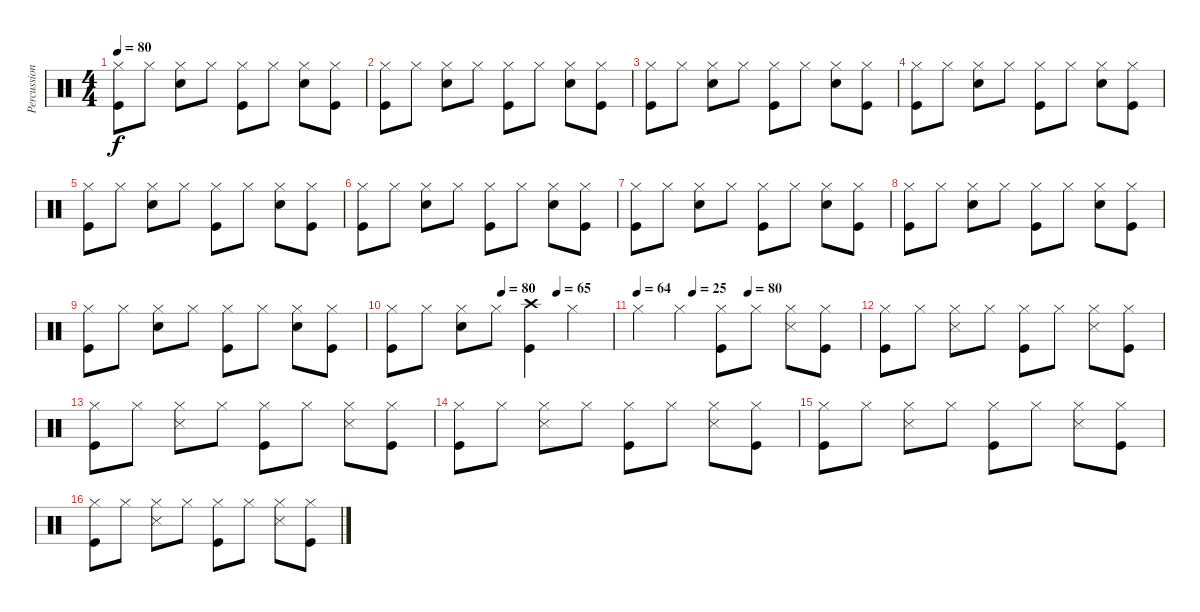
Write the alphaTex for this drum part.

\track ("Percussion" "Percussion") {instrument percussion}
\staff {score}
\articulation defaults
\ts (4 4)
\tempo 80
\clef neutral
\ks c
("Hi-Hat (closed)" "Kick (hit)").8{dy f} "Hi-Hat (closed)".8 ("Hi-Hat (closed)" "Electric Snare (hit)").8 "Hi-Hat (closed)".8 ("Hi-Hat (closed)" "Kick (hit)").8 "Hi-Hat (closed)".8 ("Hi-Hat (closed)" "Electric Snare (hit)").8 ("Hi-Hat (closed)" "Kick (hit)").8 |
("Hi-Hat (closed)" "Kick (hit)").8 "Hi-Hat (closed)".8 ("Hi-Hat (closed)" "Electric Snare (hit)").8 "Hi-Hat (closed)".8 ("Hi-Hat (closed)" "Kick (hit)").8 "Hi-Hat (closed)".8 ("Hi-Hat (closed)" "Electric Snare (hit)").8 ("Hi-Hat (closed)" "Kick (hit)").8 |
("Hi-Hat (closed)" "Kick (hit)").8 "Hi-Hat (closed)".8 ("Hi-Hat (closed)" "Electric Snare (hit)").8 "Hi-Hat (closed)".8 ("Hi-Hat (closed)" "Kick (hit)").8 "Hi-Hat (closed)".8 ("Hi-Hat (closed)" "Electric Snare (hit)").8 ("Hi-Hat (closed)" "Kick (hit)").8 |
("Hi-Hat (closed)" "Kick (hit)").8 "Hi-Hat (closed)".8 ("Hi-Hat (closed)" "Electric Snare (hit)").8 "Hi-Hat (closed)".8 ("Hi-Hat (closed)" "Kick (hit)").8 "Hi-Hat (closed)".8 ("Hi-Hat (closed)" "Electric Snare (hit)").8 ("Hi-Hat (closed)" "Kick (hit)").8 |
("Hi-Hat (closed)" "Kick (hit)").8 "Hi-Hat (closed)".8 ("Hi-Hat (closed)" "Electric Snare (hit)").8 "Hi-Hat (closed)".8 ("Hi-Hat (closed)" "Kick (hit)").8 "Hi-Hat (closed)".8 ("Hi-Hat (closed)" "Electric Snare (hit)").8 ("Hi-Hat (closed)" "Kick (hit)").8 |
("Hi-Hat (closed)" "Kick (hit)").8 "Hi-Hat (closed)".8 ("Hi-Hat (closed)" "Electric Snare (hit)").8 "Hi-Hat (closed)".8 ("Hi-Hat (closed)" "Kick (hit)").8 "Hi-Hat (closed)".8 ("Hi-Hat (closed)" "Electric Snare (hit)").8 ("Hi-Hat (closed)" "Kick (hit)").8 |
("Hi-Hat (closed)" "Kick (hit)").8 "Hi-Hat (closed)".8 ("Hi-Hat (closed)" "Electric Snare (hit)").8 "Hi-Hat (closed)".8 ("Hi-Hat (closed)" "Kick (hit)").8 "Hi-Hat (closed)".8 ("Hi-Hat (closed)" "Electric Snare (hit)").8 ("Hi-Hat (closed)" "Kick (hit)").8 |
("Hi-Hat (closed)" "Kick (hit)").8 "Hi-Hat (closed)".8 ("Hi-Hat (closed)" "Electric Snare (hit)").8 "Hi-Hat (closed)".8 ("Hi-Hat (closed)" "Kick (hit)").8 "Hi-Hat (closed)".8 ("Hi-Hat (closed)" "Electric Snare (hit)").8 ("Hi-Hat (closed)" "Kick (hit)").8 |
("Hi-Hat (closed)" "Kick (hit)").8 "Hi-Hat (closed)".8 ("Hi-Hat (closed)" "Electric Snare (hit)").8 "Hi-Hat (closed)".8 ("Hi-Hat (closed)" "Kick (hit)").8 "Hi-Hat (closed)".8 ("Hi-Hat (closed)" "Electric Snare (hit)").8 ("Hi-Hat (closed)" "Kick (hit)").8 |
\tempo (80 0.5)
\tempo (65 0.75)
("Hi-Hat (closed)" "Kick (hit)").8 "Hi-Hat (closed)".8 ("Hi-Hat (closed)" "Electric Snare (hit)").8 "Hi-Hat (closed)".8 ("Crash high (hit)" "Kick (hit)").4{volume 8} "Hi-Hat (closed)".4{volume 12} |
\tempo 64
\tempo (25 0.25)
\tempo (80 0.5)
"Hi-Hat (closed)".4 "Hi-Hat (closed)".4 ("Hi-Hat (closed)" "Kick (hit)").8 "Hi-Hat (closed)".8 ("Hi-Hat (closed)" "Snare (side stick) 3").8 ("Hi-Hat (closed)" "Kick (hit)").8 |
("Hi-Hat (closed)" "Kick (hit)").8 "Hi-Hat (closed)".8 ("Hi-Hat (closed)" "Snare (side stick) 3").8 "Hi-Hat (closed)".8 ("Hi-Hat (closed)" "Kick (hit)").8 "Hi-Hat (closed)".8 ("Hi-Hat (closed)" "Snare (side stick) 3").8 ("Hi-Hat (closed)" "Kick (hit)").8 |
("Hi-Hat (closed)" "Kick (hit)").8 "Hi-Hat (closed)".8 ("Hi-Hat (closed)" "Snare (side stick) 3").8 "Hi-Hat (closed)".8 ("Hi-Hat (closed)" "Kick (hit)").8 "Hi-Hat (closed)".8 ("Hi-Hat (closed)" "Snare (side stick) 3").8 ("Hi-Hat (closed)" "Kick (hit)").8 |
("Hi-Hat (closed)" "Kick (hit)").8 "Hi-Hat (closed)".8 ("Hi-Hat (closed)" "Snare (side stick) 3").8 "Hi-Hat (closed)".8 ("Hi-Hat (closed)" "Kick (hit)").8 "Hi-Hat (closed)".8 ("Hi-Hat (closed)" "Snare (side stick) 3").8 ("Hi-Hat (closed)" "Kick (hit)").8 |
("Hi-Hat (closed)" "Kick (hit)").8 "Hi-Hat (closed)".8 ("Hi-Hat (closed)" "Snare (side stick) 3").8 "Hi-Hat (closed)".8 ("Hi-Hat (closed)" "Kick (hit)").8 "Hi-Hat (closed)".8 ("Hi-Hat (closed)" "Snare (side stick) 3").8 ("Hi-Hat (closed)" "Kick (hit)").8 |
("Hi-Hat (closed)" "Kick (hit)").8 "Hi-Hat (closed)".8 ("Hi-Hat (closed)" "Snare (side stick) 3").8 "Hi-Hat (closed)".8 ("Hi-Hat (closed)" "Kick (hit)").8 "Hi-Hat (closed)".8 ("Hi-Hat (closed)" "Snare (side stick) 3").8 ("Hi-Hat (closed)" "Kick (hit)").8
